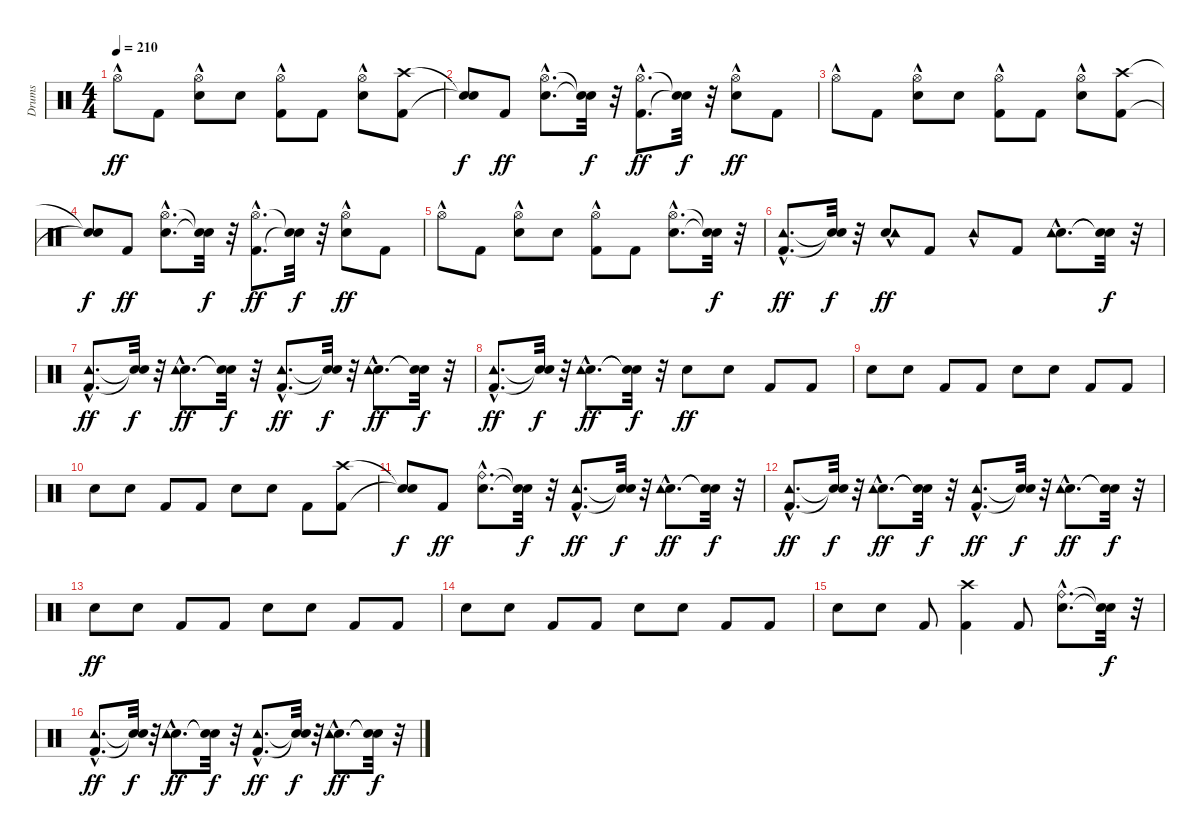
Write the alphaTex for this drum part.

\track ("Drums" "Drums") {instrument percussion}
\staff {score}
\articulation defaults
\ts (4 4)
\tempo 210
\clef neutral
\ks c "Hi-Hat (open)"{hac}.8{dy ff} "Kick (hit) 2".8
("Snare (hit) 2" "Hi-Hat (open)"{hac}).8 "Snare (hit) 2".8 ("Kick (hit) 2" "Hi-Hat (open)"{hac}).8 "Kick (hit) 2".8 ("Snare (hit) 2" "Hi-Hat (open)"{hac}).8 ("Kick (hit) 2" "Crash high (hit)").8 |
("Snare (hit)"{t} "Snare (hit)"{t}).8{dy f} "Kick (hit) 2".8{dy ff} ("Snare (hit) 2"{hac} "Hi-Hat (open)"{hac}).8{d} ("Snare (hit)"{t} "Snare (hit)"{t}).32{dy f} r.32 ("Kick (hit) 2"{hac} "Hi-Hat (open)"{hac}).8{d dy ff} ("Snare (hit)"{t} "Snare (hit)"{t}).32{dy f} r.32 ("Snare (hit) 2" "Hi-Hat (open)"{hac}).8{dy ff} "Kick (hit) 2".8 |
"Hi-Hat (open)"{hac}.8 "Kick (hit) 2".8 ("Snare (hit) 2" "Hi-Hat (open)"{hac}).8 "Snare (hit) 2".8 ("Kick (hit) 2" "Hi-Hat (open)"{hac}).8 "Kick (hit) 2".8 ("Snare (hit) 2" "Hi-Hat (open)"{hac}).8 ("Kick (hit) 2" "Crash high (hit)").8 |
("Snare (hit)"{t} "Snare (hit)"{t}).8{dy f} "Kick (hit) 2".8{dy ff} ("Snare (hit) 2"{hac} "Hi-Hat (open)"{hac}).8{d} ("Snare (hit)"{t} "Snare (hit)"{t}).32{dy f} r.32 ("Kick (hit) 2"{hac} "Hi-Hat (open)"{hac}).8{d dy ff} ("Snare (hit)"{t} "Snare (hit)"{t}).32{dy f} r.32 ("Snare (hit) 2" "Hi-Hat (open)"{hac}).8{dy ff} "Kick (hit) 2".8 |
"Hi-Hat (open)"{hac}.8 "Kick (hit) 2".8 ("Snare (hit) 2" "Hi-Hat (open)"{hac}).8 "Snare (hit) 2".8 ("Kick (hit) 2" "Hi-Hat (open)"{hac}).8 "Kick (hit) 2".8 ("Snare (hit) 2"{hac} "Hi-Hat (open)"{hac}).8{d} ("Snare (hit)"{t} "Snare (hit)"{t}).32{dy f} r.32 |
("Kick (hit) 2"{hac} "Tambourine (hit)"{hac}).8{d dy ff} ("Snare (hit)"{t} "Snare (hit)"{t}).32{dy f} r.32 ("Snare (hit) 2" "Tambourine (hit)"{hac}).8{dy ff} "Kick (hit) 2".8 "Tambourine (hit)"{hac}.8 "Kick (hit) 2".8 ("Snare (hit) 2"{hac} "Tambourine (hit)"{hac}).8{d} ("Snare (hit)"{t} "Snare (hit)"{t}).32{dy f} r.32 |
("Kick (hit) 2"{hac} "Tambourine (hit)"{hac}).8{d dy ff} ("Snare (hit)"{t} "Snare (hit)"{t}).32{dy f} r.32 ("Snare (hit) 2"{hac} "Tambourine (hit)"{hac}).8{d dy ff} ("Snare (hit)"{t} "Snare (hit)"{t}).32{dy f} r.32 ("Kick (hit) 2"{hac} "Tambourine (hit)"{hac}).8{d dy ff} ("Snare (hit)"{t} "Snare (hit)"{t}).32{dy f} r.32 ("Snare (hit) 2"{hac} "Tambourine (hit)"{hac}).8{d dy ff} ("Snare (hit)"{t} "Snare (hit)"{t}).32{dy f} r.32 |
("Kick (hit) 2"{hac} "Tambourine (hit)"{hac}).8{d dy ff} ("Snare (hit)"{t} "Snare (hit)"{t}).32{dy f} r.32 ("Snare (hit) 2"{hac} "Tambourine (hit)"{hac}).8{d dy ff} ("Snare (hit)"{t} "Snare (hit)"{t}).32{dy f} r.32 "Snare (hit) 2".8{dy ff} "Snare (hit) 2".8 "Kick (hit) 2".8 "Kick (hit) 2".8 |
"Snare (hit) 2".8 "Snare (hit) 2".8 "Kick (hit) 2".8 "Kick (hit) 2".8 "Snare (hit) 2".8 "Snare (hit) 2".8 "Kick (hit) 2".8 "Kick (hit) 2".8 |
"Snare (hit) 2".8 "Snare (hit) 2".8 "Kick (hit) 2".8 "Kick (hit) 2".8 "Snare (hit) 2".8 "Snare (hit) 2".8 "Kick (hit) 2".8 ("Kick (hit) 2" "Crash high (hit)").8 |
("Snare (hit)"{t} "Snare (hit)"{t}).8{dy f} "Kick (hit) 2".8{dy ff} ("Snare (hit) 2"{hac} "Ride (bell)"{hac}).8{d} ("Snare (hit)"{t} "Snare (hit)"{t}).32{dy f} r.32 ("Kick (hit) 2"{hac} "Tambourine (hit)"{hac}).8{d dy ff} ("Snare (hit)"{t} "Snare (hit)"{t}).32{dy f} r.32 ("Snare (hit) 2"{hac} "Tambourine (hit)"{hac}).8{d dy ff} ("Snare (hit)"{t} "Snare (hit)"{t}).32{dy f} r.32 |
("Kick (hit) 2"{hac} "Tambourine (hit)"{hac}).8{d dy ff} ("Snare (hit)"{t} "Snare (hit)"{t}).32{dy f} r.32 ("Snare (hit) 2"{hac} "Tambourine (hit)"{hac}).8{d dy ff} ("Snare (hit)"{t} "Snare (hit)"{t}).32{dy f} r.32 ("Kick (hit) 2"{hac} "Tambourine (hit)"{hac}).8{d dy ff} ("Snare (hit)"{t} "Snare (hit)"{t}).32{dy f} r.32 ("Snare (hit) 2"{hac} "Tambourine (hit)"{hac}).8{d dy ff} ("Snare (hit)"{t} "Snare (hit)"{t}).32{dy f} r.32 |
"Snare (hit) 2".8{dy ff} "Snare (hit) 2".8 "Kick (hit) 2".8 "Kick (hit) 2".8 "Snare (hit) 2".8 "Snare (hit) 2".8 "Kick (hit) 2".8 "Kick (hit) 2".8 |
"Snare (hit) 2".8 "Snare (hit) 2".8 "Kick (hit) 2".8 "Kick (hit) 2".8 "Snare (hit) 2".8 "Snare (hit) 2".8 "Kick (hit) 2".8 "Kick (hit) 2".8 |
"Snare (hit) 2".8 "Snare (hit) 2".8 "Kick (hit) 2".8 ("Kick (hit) 2" "Crash high (hit)").4 "Kick (hit) 2".8 ("Snare (hit) 2"{hac} "Ride (bell)"{hac}).8{d} ("Snare (hit)"{t} "Snare (hit)"{t}).32{dy f} r.32 |
("Kick (hit) 2"{hac} "Tambourine (hit)"{hac}).8{d dy ff} ("Snare (hit)"{t} "Snare (hit)"{t}).32{dy f} r.32 ("Snare (hit) 2"{hac} "Tambourine (hit)"{hac}).8{d dy ff} ("Snare (hit)"{t} "Snare (hit)"{t}).32{dy f} r.32 ("Kick (hit) 2"{hac} "Tambourine (hit)"{hac}).8{d dy ff} ("Snare (hit)"{t} "Snare (hit)"{t}).32{dy f} r.32 ("Snare (hit) 2"{hac} "Tambourine (hit)"{hac}).8{d dy ff} ("Snare (hit)"{t} "Snare (hit)"{t}).32{dy f} r.32
